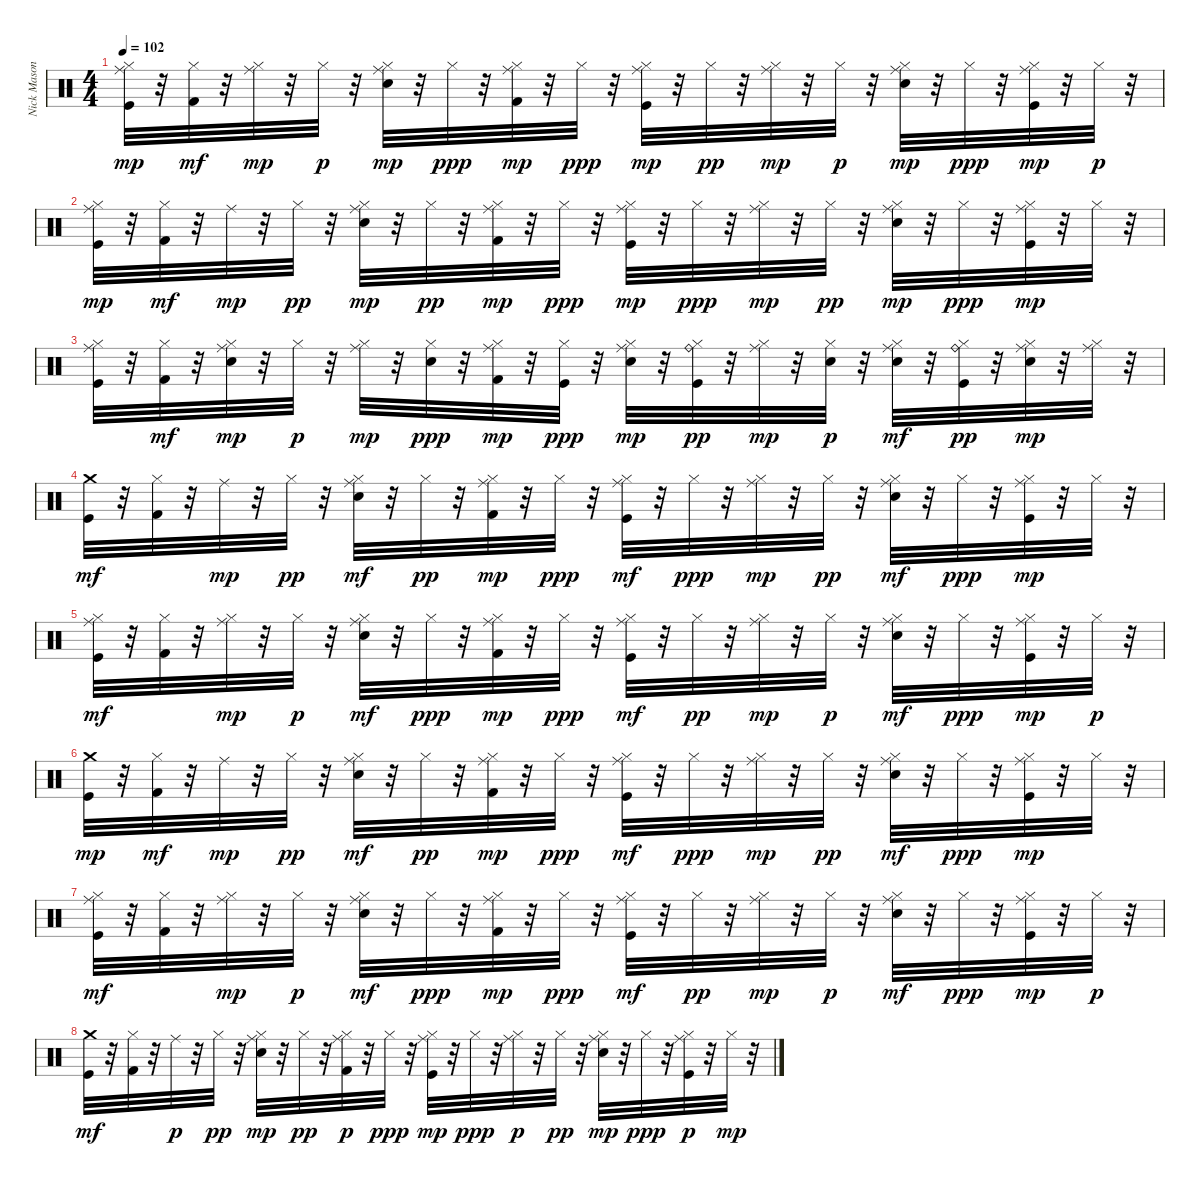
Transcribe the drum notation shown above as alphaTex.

\track ("Nick Mason / Gary Wallis" "Nick Mason") {instrument percussion}
\staff {score}
\articulation defaults
\ts (4 4)
\tempo 102
\clef neutral
\ks c
("Kick (hit)" "Hi-Hat (closed)" "Ride (middle)").32{dy mp} r.32 ("Hi-Hat (closed)" "Kick (hit) 2").32{dy mf} r.32 ("Hi-Hat (closed)" "Ride (middle)").32{dy mp} r.32 "Hi-Hat (closed)".32{dy p} r.32 ("Electric Snare (hit)" "Hi-Hat (closed)" "Ride (middle)").32{dy mp} r.32 "Hi-Hat (closed)".32{dy ppp} r.32 ("Kick (hit) 2" "Hi-Hat (closed)" "Ride (middle)").32{dy mp} r.32 "Hi-Hat (closed)".32{dy ppp} r.32 ("Kick (hit)" "Hi-Hat (closed)" "Ride (middle)").32{dy mp} r.32 "Hi-Hat (closed)".32{dy pp} r.32 ("Hi-Hat (closed)" "Ride (middle)").32{dy mp} r.32 "Hi-Hat (closed)".32{dy p} r.32 ("Electric Snare (hit)" "Hi-Hat (closed)" "Ride (middle)").32{dy mp} r.32 "Hi-Hat (closed)".32{dy ppp} r.32 ("Kick (hit)" "Hi-Hat (closed)" "Ride (middle)").32{dy mp} r.32 "Hi-Hat (closed)".32{dy p} r.32 |
("Kick (hit)" "Hi-Hat (closed)" "Ride (middle)").32{dy mp} r.32 ("Hi-Hat (closed)" "Kick (hit) 2").32{dy mf} r.32 "Ride (middle)".32{dy mp} r.32 "Hi-Hat (closed)".32{dy pp} r.32 ("Electric Snare (hit)" "Hi-Hat (closed)" "Ride (middle)").32{dy mp} r.32 "Hi-Hat (closed)".32{dy pp} r.32 ("Kick (hit) 2" "Hi-Hat (closed)" "Ride (middle)").32{dy mp} r.32 "Hi-Hat (closed)".32{dy ppp} r.32 ("Kick (hit)" "Hi-Hat (closed)" "Ride (middle)").32{dy mp} r.32 "Hi-Hat (closed)".32{dy ppp} r.32 ("Hi-Hat (closed)" "Ride (middle)").32{dy mp} r.32 "Hi-Hat (closed)".32{dy pp} r.32 ("Electric Snare (hit)" "Hi-Hat (closed)" "Ride (middle)").32{dy mp} r.32 "Hi-Hat (closed)".32{dy ppp} r.32 ("Kick (hit)" "Hi-Hat (closed)" "Ride (middle)").32{dy mp} r.32 "Hi-Hat (closed)".32 r.32 |
("Kick (hit)" "Hi-Hat (closed)" "Ride (middle)").32 r.32 ("Hi-Hat (closed)" "Kick (hit) 2").32{dy mf} r.32 ("Electric Snare (hit)" "Hi-Hat (closed)" "Ride (middle)").32{dy mp} r.32 "Hi-Hat (closed)".32{dy p} r.32 ("Hi-Hat (closed)" "Ride (middle)").32{dy mp} r.32 ("Electric Snare (hit)" "Hi-Hat (closed)").32{dy ppp} r.32 ("Kick (hit) 2" "Hi-Hat (closed)" "Ride (middle)").32{dy mp} r.32 ("Kick (hit)" "Hi-Hat (closed)").32{dy ppp} r.32 ("Electric Snare (hit)" "Hi-Hat (closed)" "Ride (middle)").32{dy mp} r.32 ("Kick (hit)" "Hi-Hat (closed)" "Ride (bell)").32{dy pp} r.32 ("Hi-Hat (closed)" "Ride (middle)").32{dy mp} r.32 ("Electric Snare (hit)" "Hi-Hat (closed)").32{dy p} r.32 ("Electric Snare (hit)" "Hi-Hat (closed)" "Ride (middle)").32{dy mf} r.32 ("Kick (hit)" "Hi-Hat (closed)" "Ride (bell)").32{dy pp} r.32 ("Electric Snare (hit)" "Hi-Hat (closed)" "Ride (middle)").32{dy mp} r.32 ("Hi-Hat (closed)" "Ride (middle)").32 r.32 |
("Kick (hit)" "Crash medium (hit)").32{dy mf} r.32 ("Hi-Hat (closed)" "Kick (hit) 2").32 r.32 "Ride (middle)".32{dy mp} r.32 "Hi-Hat (closed)".32{dy pp} r.32 ("Electric Snare (hit)" "Hi-Hat (closed)" "Ride (middle)").32{dy mf} r.32 "Hi-Hat (closed)".32{dy pp} r.32 ("Kick (hit) 2" "Hi-Hat (closed)" "Ride (middle)").32{dy mp} r.32 "Hi-Hat (closed)".32{dy ppp} r.32 ("Kick (hit)" "Hi-Hat (closed)" "Ride (middle)").32{dy mf} r.32 "Hi-Hat (closed)".32{dy ppp} r.32 ("Hi-Hat (closed)" "Ride (middle)").32{dy mp} r.32 "Hi-Hat (closed)".32{dy pp} r.32 ("Electric Snare (hit)" "Hi-Hat (closed)" "Ride (middle)").32{dy mf} r.32 "Hi-Hat (closed)".32{dy ppp} r.32 ("Kick (hit)" "Hi-Hat (closed)" "Ride (middle)").32{dy mp} r.32 "Hi-Hat (closed)".32 r.32 |
("Kick (hit)" "Hi-Hat (closed)" "Ride (middle)").32{dy mf} r.32 ("Hi-Hat (closed)" "Kick (hit) 2").32 r.32 ("Hi-Hat (closed)" "Ride (middle)").32{dy mp} r.32 "Hi-Hat (closed)".32{dy p} r.32 ("Electric Snare (hit)" "Hi-Hat (closed)" "Ride (middle)").32{dy mf} r.32 "Hi-Hat (closed)".32{dy ppp} r.32 ("Kick (hit) 2" "Hi-Hat (closed)" "Ride (middle)").32{dy mp} r.32 "Hi-Hat (closed)".32{dy ppp} r.32 ("Kick (hit)" "Hi-Hat (closed)" "Ride (middle)").32{dy mf} r.32 "Hi-Hat (closed)".32{dy pp} r.32 ("Hi-Hat (closed)" "Ride (middle)").32{dy mp} r.32 "Hi-Hat (closed)".32{dy p} r.32 ("Electric Snare (hit)" "Hi-Hat (closed)" "Ride (middle)").32{dy mf} r.32 "Hi-Hat (closed)".32{dy ppp} r.32 ("Kick (hit)" "Hi-Hat (closed)" "Ride (middle)").32{dy mp} r.32 "Hi-Hat (closed)".32{dy p} r.32 |
("Kick (hit)" "Crash medium (hit)").32{dy mp} r.32 ("Hi-Hat (closed)" "Kick (hit) 2").32{dy mf} r.32 "Ride (middle)".32{dy mp} r.32 "Hi-Hat (closed)".32{dy pp} r.32 ("Electric Snare (hit)" "Hi-Hat (closed)" "Ride (middle)").32{dy mf} r.32 "Hi-Hat (closed)".32{dy pp} r.32 ("Kick (hit) 2" "Hi-Hat (closed)" "Ride (middle)").32{dy mp} r.32 "Hi-Hat (closed)".32{dy ppp} r.32 ("Kick (hit)" "Hi-Hat (closed)" "Ride (middle)").32{dy mf} r.32 "Hi-Hat (closed)".32{dy ppp} r.32 ("Hi-Hat (closed)" "Ride (middle)").32{dy mp} r.32 "Hi-Hat (closed)".32{dy pp} r.32 ("Electric Snare (hit)" "Hi-Hat (closed)" "Ride (middle)").32{dy mf} r.32 "Hi-Hat (closed)".32{dy ppp} r.32 ("Kick (hit)" "Hi-Hat (closed)" "Ride (middle)").32{dy mp} r.32 "Hi-Hat (closed)".32 r.32 |
("Kick (hit)" "Hi-Hat (closed)" "Ride (middle)").32{dy mf} r.32 ("Hi-Hat (closed)" "Kick (hit) 2").32 r.32 ("Hi-Hat (closed)" "Ride (middle)").32{dy mp} r.32 "Hi-Hat (closed)".32{dy p} r.32 ("Electric Snare (hit)" "Hi-Hat (closed)" "Ride (middle)").32{dy mf} r.32 "Hi-Hat (closed)".32{dy ppp} r.32 ("Kick (hit) 2" "Hi-Hat (closed)" "Ride (middle)").32{dy mp} r.32 "Hi-Hat (closed)".32{dy ppp} r.32 ("Kick (hit)" "Hi-Hat (closed)" "Ride (middle)").32{dy mf} r.32 "Hi-Hat (closed)".32{dy pp} r.32 ("Hi-Hat (closed)" "Ride (middle)").32{dy mp} r.32 "Hi-Hat (closed)".32{dy p} r.32 ("Electric Snare (hit)" "Hi-Hat (closed)" "Ride (middle)").32{dy mf} r.32 "Hi-Hat (closed)".32{dy ppp} r.32 ("Kick (hit)" "Hi-Hat (closed)" "Ride (middle)").32{dy mp} r.32 "Hi-Hat (closed)".32{dy p} r.32 |
("Kick (hit)" "Crash medium (hit)").32{dy mf} r.32 ("Hi-Hat (closed)" "Kick (hit) 2").32 r.32 "Ride (middle)".32{dy p} r.32 "Hi-Hat (closed)".32{dy pp} r.32 ("Electric Snare (hit)" "Hi-Hat (closed)" "Ride (middle)").32{dy mp} r.32 "Hi-Hat (closed)".32{dy pp} r.32 ("Kick (hit) 2" "Hi-Hat (closed)" "Ride (middle)").32{dy p} r.32 "Hi-Hat (closed)".32{dy ppp} r.32 ("Kick (hit)" "Hi-Hat (closed)" "Ride (middle)").32{dy mp} r.32 "Hi-Hat (closed)".32{dy ppp} r.32 ("Hi-Hat (closed)" "Ride (middle)").32{dy p} r.32 "Hi-Hat (closed)".32{dy pp} r.32 ("Electric Snare (hit)" "Hi-Hat (closed)" "Ride (middle)").32{dy mp} r.32 "Hi-Hat (closed)".32{dy ppp} r.32 ("Kick (hit)" "Hi-Hat (closed)" "Ride (middle)").32{dy p} r.32 "Hi-Hat (closed)".32{dy mp} r.32
